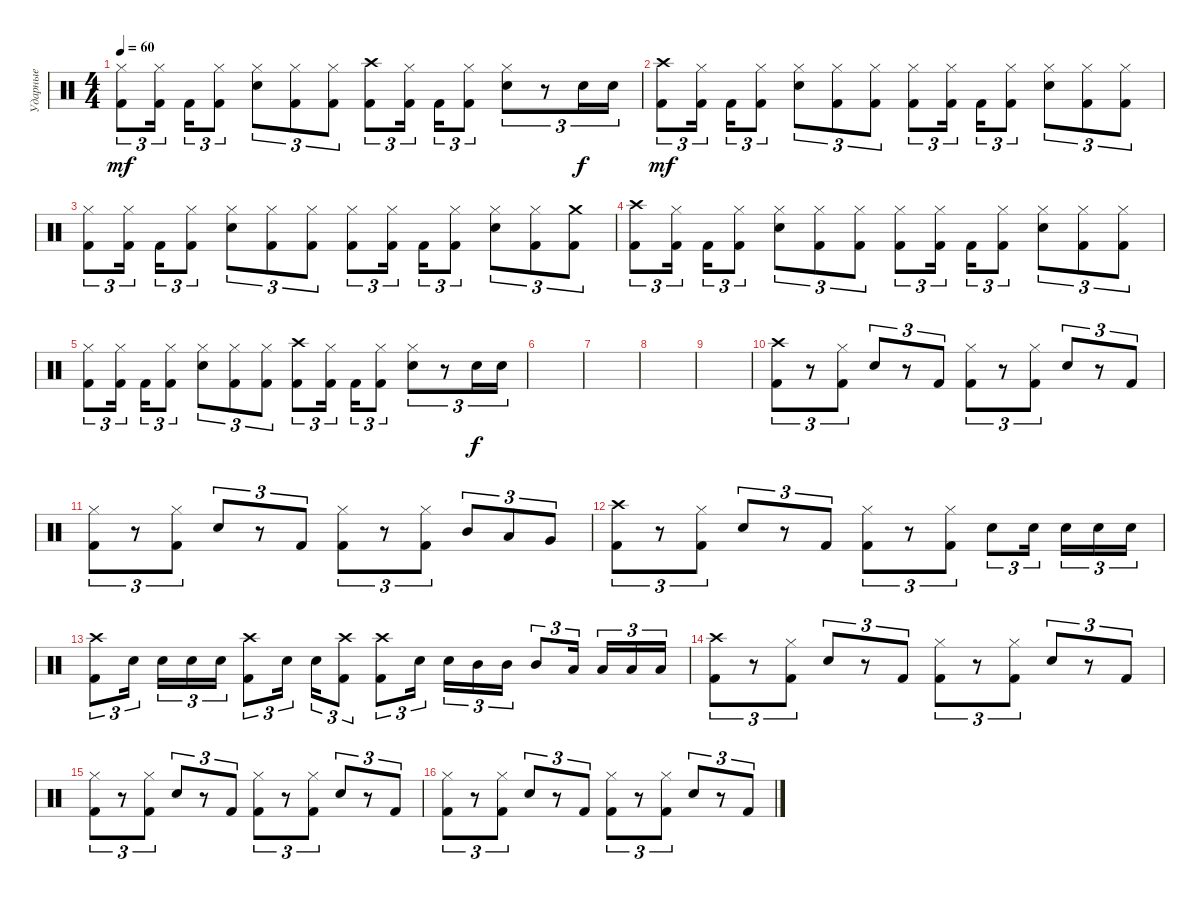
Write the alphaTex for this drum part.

\track ("Ударные" "Ударные") {instrument percussion}
\staff {score}
\articulation defaults
\ts (4 4)
\tempo 60
\clef neutral
\ks c
("Hi-Hat (closed)" "Kick (hit) 2").8{tu (3 2) dy mf} ("Hi-Hat (closed)" "Kick (hit) 2").16{tu (3 2) beam splitsecondary} "Kick (hit) 2".16{tu (3 2)} ("Hi-Hat (closed)" "Kick (hit) 2").8{tu (3 2)} ("Hi-Hat (closed)" "Snare (hit) 2").8{tu (3 2)} ("Hi-Hat (closed)" "Kick (hit) 2").8{tu (3 2)} ("Hi-Hat (closed)" "Kick (hit) 2").8{tu (3 2)} ("Crash high (hit)" "Kick (hit) 2").8{tu (3 2)} ("Hi-Hat (closed)" "Kick (hit) 2").16{tu (3 2) beam splitsecondary} "Kick (hit) 2".16{tu (3 2)} ("Hi-Hat (closed)" "Kick (hit) 2").8{tu (3 2)} ("Hi-Hat (closed)" "Snare (hit) 2").8{tu (3 2)} r.8{tu (3 2)} "Snare (hit) 2".16{tu (3 2) dy f} "Snare (hit) 2".16{tu (3 2)} |
("Crash high (hit)" "Kick (hit) 2").8{tu (3 2) dy mf} ("Hi-Hat (closed)" "Kick (hit) 2").16{tu (3 2) beam splitsecondary} "Kick (hit) 2".16{tu (3 2)} ("Hi-Hat (closed)" "Kick (hit) 2").8{tu (3 2)} ("Hi-Hat (closed)" "Snare (hit) 2").8{tu (3 2)} ("Hi-Hat (closed)" "Kick (hit) 2").8{tu (3 2)} ("Hi-Hat (closed)" "Kick (hit) 2").8{tu (3 2)} ("Hi-Hat (closed)" "Kick (hit) 2").8{tu (3 2)} ("Hi-Hat (closed)" "Kick (hit) 2").16{tu (3 2) beam splitsecondary} "Kick (hit) 2".16{tu (3 2)} ("Hi-Hat (closed)" "Kick (hit) 2").8{tu (3 2)} ("Hi-Hat (closed)" "Snare (hit) 2").8{tu (3 2)} ("Hi-Hat (closed)" "Kick (hit) 2").8{tu (3 2)} ("Hi-Hat (closed)" "Kick (hit) 2").8{tu (3 2)} |
("Hi-Hat (closed)" "Kick (hit) 2").8{tu (3 2)} ("Hi-Hat (closed)" "Kick (hit) 2").16{tu (3 2) beam splitsecondary} "Kick (hit) 2".16{tu (3 2)} ("Hi-Hat (closed)" "Kick (hit) 2").8{tu (3 2)} ("Hi-Hat (closed)" "Snare (hit) 2").8{tu (3 2)} ("Hi-Hat (closed)" "Kick (hit) 2").8{tu (3 2)} ("Hi-Hat (closed)" "Kick (hit) 2").8{tu (3 2)} ("Hi-Hat (closed)" "Kick (hit) 2").8{tu (3 2)} ("Hi-Hat (closed)" "Kick (hit) 2").16{tu (3 2) beam splitsecondary} "Kick (hit) 2".16{tu (3 2)} ("Hi-Hat (closed)" "Kick (hit) 2").8{tu (3 2)} ("Hi-Hat (closed)" "Snare (hit) 2").8{tu (3 2)} ("Hi-Hat (closed)" "Kick (hit) 2").8{tu (3 2)} ("Crash medium (hit)" "Kick (hit) 2").8{tu (3 2)} |
("Crash high (hit)" "Kick (hit) 2").8{tu (3 2)} ("Hi-Hat (closed)" "Kick (hit) 2").16{tu (3 2) beam splitsecondary} "Kick (hit) 2".16{tu (3 2)} ("Hi-Hat (closed)" "Kick (hit) 2").8{tu (3 2)} ("Hi-Hat (closed)" "Snare (hit) 2").8{tu (3 2)} ("Hi-Hat (closed)" "Kick (hit) 2").8{tu (3 2)} ("Hi-Hat (closed)" "Kick (hit) 2").8{tu (3 2)} ("Hi-Hat (closed)" "Kick (hit) 2").8{tu (3 2)} ("Hi-Hat (closed)" "Kick (hit) 2").16{tu (3 2) beam splitsecondary} "Kick (hit) 2".16{tu (3 2)} ("Hi-Hat (closed)" "Kick (hit) 2").8{tu (3 2)} ("Hi-Hat (closed)" "Snare (hit) 2").8{tu (3 2)} ("Hi-Hat (closed)" "Kick (hit) 2").8{tu (3 2)} ("Hi-Hat (closed)" "Kick (hit) 2").8{tu (3 2)} |
("Hi-Hat (closed)" "Kick (hit) 2").8{tu (3 2)} ("Hi-Hat (closed)" "Kick (hit) 2").16{tu (3 2) beam splitsecondary} "Kick (hit) 2".16{tu (3 2)} ("Hi-Hat (closed)" "Kick (hit) 2").8{tu (3 2)} ("Hi-Hat (closed)" "Snare (hit) 2").8{tu (3 2)} ("Hi-Hat (closed)" "Kick (hit) 2").8{tu (3 2)} ("Hi-Hat (closed)" "Kick (hit) 2").8{tu (3 2)} ("Crash high (hit)" "Kick (hit) 2").8{tu (3 2)} ("Hi-Hat (closed)" "Kick (hit) 2").16{tu (3 2) beam splitsecondary} "Kick (hit) 2".16{tu (3 2)} ("Hi-Hat (closed)" "Kick (hit) 2").8{tu (3 2)} ("Hi-Hat (closed)" "Snare (hit) 2").8{tu (3 2)} r.8{tu (3 2)} "Snare (hit) 2".16{tu (3 2) dy f} "Snare (hit) 2".16{tu (3 2)} |
|
|
|
|
("Crash high (hit)" "Kick (hit) 2").8{tu (3 2)} r.8{tu (3 2)} ("Hi-Hat (closed)" "Kick (hit) 2").8{tu (3 2)} "Snare (hit) 2".8{tu (3 2)} r.8{tu (3 2)} "Kick (hit) 2".8{tu (3 2)} ("Hi-Hat (closed)" "Kick (hit) 2").8{tu (3 2)} r.8{tu (3 2)} ("Hi-Hat (closed)" "Kick (hit) 2").8{tu (3 2)} "Snare (hit) 2".8{tu (3 2)} r.8{tu (3 2)} "Kick (hit) 2".8{tu (3 2)} |
("Hi-Hat (closed)" "Kick (hit) 2").8{tu (3 2)} r.8{tu (3 2)} ("Hi-Hat (closed)" "Kick (hit) 2").8{tu (3 2)} "Snare (hit) 2".8{tu (3 2)} r.8{tu (3 2)} "Kick (hit) 2".8{tu (3 2)} ("Hi-Hat (closed)" "Kick (hit) 2").8{tu (3 2)} r.8{tu (3 2)} ("Hi-Hat (closed)" "Kick (hit) 2").8{tu (3 2)} "Mid Tom (hit)".8{tu (3 2)} "Low Tom (hit)".8{tu (3 2)} "Very Low Tom (hit)".8{tu (3 2)} |
("Crash high (hit)" "Kick (hit) 2").8{tu (3 2)} r.8{tu (3 2)} ("Hi-Hat (closed)" "Kick (hit) 2").8{tu (3 2)} "Snare (hit) 2".8{tu (3 2)} r.8{tu (3 2)} "Kick (hit) 2".8{tu (3 2)} ("Hi-Hat (closed)" "Kick (hit) 2").8{tu (3 2)} r.8{tu (3 2)} ("Hi-Hat (closed)" "Kick (hit) 2").8{tu (3 2)} "Snare (hit) 2".8{tu (3 2)} "Snare (hit) 2".16{tu (3 2) beam splitsecondary} "Snare (hit) 2".16{tu (3 2)} "Snare (hit) 2".16{tu (3 2)} "Snare (hit) 2".16{tu (3 2)} |
("Crash high (hit)" "Kick (hit) 2").8{tu (3 2)} "Snare (hit) 2".16{tu (3 2) beam splitsecondary} "Snare (hit) 2".16{tu (3 2)} "Snare (hit) 2".16{tu (3 2)} "Snare (hit) 2".16{tu (3 2)} ("Crash high (hit)" "Kick (hit) 2").8{tu (3 2)} "Snare (hit) 2".16{tu (3 2) beam splitsecondary} "Snare (hit) 2".16{tu (3 2)} ("Crash high (hit)" "Kick (hit) 2").8{tu (3 2)} ("Crash high (hit)" "Kick (hit) 2").8{tu (3 2)} "Snare (hit) 2".16{tu (3 2) beam splitsecondary} "Snare (hit) 2".16{tu (3 2)} "Mid Tom (hit)".16{tu (3 2)} "Mid Tom (hit)".16{tu (3 2)} "Mid Tom (hit)".8{tu (3 2)} "Low Tom (hit)".16{tu (3 2) beam splitsecondary} "Low Tom (hit)".16{tu (3 2)} "Low Tom (hit)".16{tu (3 2)} "Low Tom (hit)".16{tu (3 2)} |
("Crash high (hit)" "Kick (hit) 2").8{tu (3 2)} r.8{tu (3 2)} ("Hi-Hat (closed)" "Kick (hit) 2").8{tu (3 2)} "Snare (hit) 2".8{tu (3 2)} r.8{tu (3 2)} "Kick (hit) 2".8{tu (3 2)} ("Hi-Hat (closed)" "Kick (hit) 2").8{tu (3 2)} r.8{tu (3 2)} ("Hi-Hat (closed)" "Kick (hit) 2").8{tu (3 2)} "Snare (hit) 2".8{tu (3 2)} r.8{tu (3 2)} "Kick (hit) 2".8{tu (3 2)} |
("Hi-Hat (closed)" "Kick (hit) 2").8{tu (3 2)} r.8{tu (3 2)} ("Hi-Hat (closed)" "Kick (hit) 2").8{tu (3 2)} "Snare (hit) 2".8{tu (3 2)} r.8{tu (3 2)} "Kick (hit) 2".8{tu (3 2)} ("Hi-Hat (closed)" "Kick (hit) 2").8{tu (3 2)} r.8{tu (3 2)} ("Hi-Hat (closed)" "Kick (hit) 2").8{tu (3 2)} "Snare (hit) 2".8{tu (3 2)} r.8{tu (3 2)} "Kick (hit) 2".8{tu (3 2)} |
("Hi-Hat (closed)" "Kick (hit) 2").8{tu (3 2)} r.8{tu (3 2)} ("Hi-Hat (closed)" "Kick (hit) 2").8{tu (3 2)} "Snare (hit) 2".8{tu (3 2)} r.8{tu (3 2)} "Kick (hit) 2".8{tu (3 2)} ("Hi-Hat (closed)" "Kick (hit) 2").8{tu (3 2)} r.8{tu (3 2)} ("Hi-Hat (closed)" "Kick (hit) 2").8{tu (3 2)} "Snare (hit) 2".8{tu (3 2)} r.8{tu (3 2)} "Kick (hit) 2".8{tu (3 2)}
